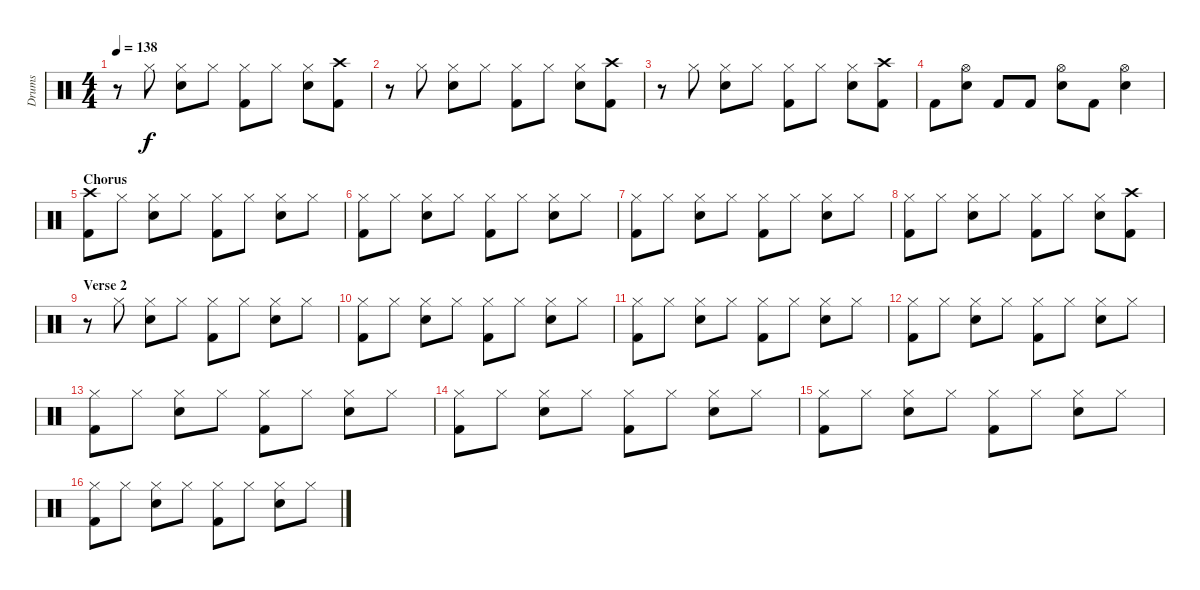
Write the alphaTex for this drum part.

\track ("Drums" "Drums") {instrument percussion}
\staff {score}
\articulation defaults
\ts (4 4)
\tempo 138
\clef neutral
\ks c
r.8{dy f} "Hi-Hat (closed)".8 ("Hi-Hat (closed)" "Snare (hit) 2").8 "Hi-Hat (closed)".8 ("Hi-Hat (closed)" "Kick (hit) 2").8 "Hi-Hat (closed)".8 ("Hi-Hat (closed)" "Snare (hit) 2").8 ("Crash high (hit)" "Kick (hit) 2").8 |
r.8 "Hi-Hat (closed)".8 ("Hi-Hat (closed)" "Snare (hit) 2").8 "Hi-Hat (closed)".8 ("Hi-Hat (closed)" "Kick (hit) 2").8 "Hi-Hat (closed)".8 ("Hi-Hat (closed)" "Snare (hit) 2").8 ("Crash high (hit)" "Kick (hit) 2").8 |
r.8 "Hi-Hat (closed)".8 ("Hi-Hat (closed)" "Snare (hit) 2").8 "Hi-Hat (closed)".8 ("Hi-Hat (closed)" "Kick (hit) 2").8 "Hi-Hat (closed)".8 ("Hi-Hat (closed)" "Snare (hit) 2").8 ("Crash high (hit)" "Kick (hit) 2").8 |
"Kick (hit) 2".8 ("Hi-Hat (open)" "Snare (hit) 2").8 "Kick (hit) 2".8 "Kick (hit) 2".8 ("Hi-Hat (open)" "Snare (hit) 2").8 "Kick (hit) 2".8 ("Hi-Hat (open)" "Snare (hit) 2").4 |
\section ("" "Chorus")
("Crash high (hit)" "Kick (hit) 2").8 "Hi-Hat (closed)".8 ("Hi-Hat (closed)" "Snare (hit) 2").8 "Hi-Hat (closed)".8 ("Hi-Hat (closed)" "Kick (hit) 2").8 "Hi-Hat (closed)".8 ("Hi-Hat (closed)" "Snare (hit) 2").8 "Hi-Hat (closed)".8 |
("Hi-Hat (closed)" "Kick (hit) 2").8 "Hi-Hat (closed)".8 ("Hi-Hat (closed)" "Snare (hit) 2").8 "Hi-Hat (closed)".8 ("Hi-Hat (closed)" "Kick (hit) 2").8 "Hi-Hat (closed)".8 ("Hi-Hat (closed)" "Snare (hit) 2").8 "Hi-Hat (closed)".8 |
("Hi-Hat (closed)" "Kick (hit) 2").8 "Hi-Hat (closed)".8 ("Hi-Hat (closed)" "Snare (hit) 2").8 "Hi-Hat (closed)".8 ("Hi-Hat (closed)" "Kick (hit) 2").8 "Hi-Hat (closed)".8 ("Hi-Hat (closed)" "Snare (hit) 2").8 "Hi-Hat (closed)".8 |
("Hi-Hat (closed)" "Kick (hit) 2").8 "Hi-Hat (closed)".8 ("Hi-Hat (closed)" "Snare (hit) 2").8 "Hi-Hat (closed)".8 ("Hi-Hat (closed)" "Kick (hit) 2").8 "Hi-Hat (closed)".8 ("Hi-Hat (closed)" "Snare (hit) 2").8 ("Crash high (hit)" "Kick (hit) 2").8 |
\section ("" "Verse 2")
r.8 "Hi-Hat (closed)".8 ("Hi-Hat (closed)" "Snare (hit) 2").8 "Hi-Hat (closed)".8 ("Hi-Hat (closed)" "Kick (hit) 2").8 "Hi-Hat (closed)".8 ("Hi-Hat (closed)" "Snare (hit) 2").8 "Hi-Hat (closed)".8 |
("Hi-Hat (closed)" "Kick (hit) 2").8 "Hi-Hat (closed)".8 ("Hi-Hat (closed)" "Snare (hit) 2").8 "Hi-Hat (closed)".8 ("Hi-Hat (closed)" "Kick (hit) 2").8 "Hi-Hat (closed)".8 ("Hi-Hat (closed)" "Snare (hit) 2").8 "Hi-Hat (closed)".8 |
("Hi-Hat (closed)" "Kick (hit) 2").8 "Hi-Hat (closed)".8 ("Hi-Hat (closed)" "Snare (hit) 2").8 "Hi-Hat (closed)".8 ("Hi-Hat (closed)" "Kick (hit) 2").8 "Hi-Hat (closed)".8 ("Hi-Hat (closed)" "Snare (hit) 2").8 "Hi-Hat (closed)".8 |
("Hi-Hat (closed)" "Kick (hit) 2").8 "Hi-Hat (closed)".8 ("Hi-Hat (closed)" "Snare (hit) 2").8 "Hi-Hat (closed)".8 ("Hi-Hat (closed)" "Kick (hit) 2").8 "Hi-Hat (closed)".8 ("Hi-Hat (closed)" "Snare (hit) 2").8 "Hi-Hat (closed)".8 |
("Hi-Hat (closed)" "Kick (hit) 2").8 "Hi-Hat (closed)".8 ("Hi-Hat (closed)" "Snare (hit) 2").8 "Hi-Hat (closed)".8 ("Hi-Hat (closed)" "Kick (hit) 2").8 "Hi-Hat (closed)".8 ("Hi-Hat (closed)" "Snare (hit) 2").8 "Hi-Hat (closed)".8 |
("Hi-Hat (closed)" "Kick (hit) 2").8 "Hi-Hat (closed)".8 ("Hi-Hat (closed)" "Snare (hit) 2").8 "Hi-Hat (closed)".8 ("Hi-Hat (closed)" "Kick (hit) 2").8 "Hi-Hat (closed)".8 ("Hi-Hat (closed)" "Snare (hit) 2").8 "Hi-Hat (closed)".8 |
("Hi-Hat (closed)" "Kick (hit) 2").8 "Hi-Hat (closed)".8 ("Hi-Hat (closed)" "Snare (hit) 2").8 "Hi-Hat (closed)".8 ("Hi-Hat (closed)" "Kick (hit) 2").8 "Hi-Hat (closed)".8 ("Hi-Hat (closed)" "Snare (hit) 2").8 "Hi-Hat (closed)".8 |
("Hi-Hat (closed)" "Kick (hit) 2").8 "Hi-Hat (closed)".8 ("Hi-Hat (closed)" "Snare (hit) 2").8 "Hi-Hat (closed)".8 ("Hi-Hat (closed)" "Kick (hit) 2").8 "Hi-Hat (closed)".8 ("Hi-Hat (closed)" "Snare (hit) 2").8 "Hi-Hat (closed)".8
